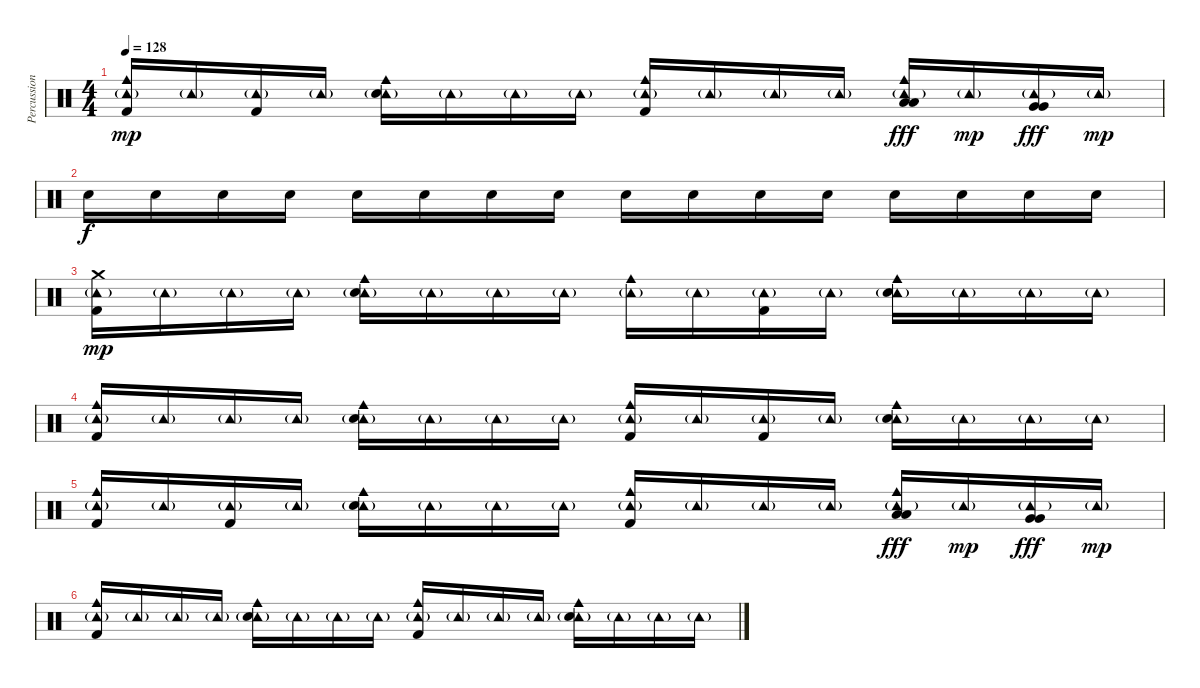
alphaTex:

\track ("Percussion" "Percussion") {instrument percussion}
\staff {score}
\articulation defaults
\ts (4 4)
\tempo 128
\clef neutral
\ks c
("Tambourine (hit)"{g} "Cowbell medium (hit)" "Kick (hit) 2").16{dy mp} "Tambourine (hit)"{g}.16 ("Tambourine (hit)"{g} "Kick (hit) 2").16 "Tambourine (hit)"{g}.16 ("Tambourine (hit)"{g} "Cowbell medium (hit)" "Snare (hit) 2").16 "Tambourine (hit)"{g}.16 "Tambourine (hit)"{g}.16 "Tambourine (hit)"{g}.16 ("Tambourine (hit)"{g} "Cowbell medium (hit)" "Kick (hit) 2").16 "Tambourine (hit)"{g}.16 "Tambourine (hit)"{g}.16 "Tambourine (hit)"{g}.16 ("Tambourine (hit)"{g} "Cowbell medium (hit)" "Low Tom (hit)" "Low Tom (hit)").16{dy fff} "Tambourine (hit)"{g}.16{dy mp} ("Tambourine (hit)"{g} "Very Low Tom (hit)" "Very Low Tom (hit)").16{dy fff} "Tambourine (hit)"{g}.16{dy mp} |
"Snare (hit) 2".16{dy f} "Snare (hit) 2".16 "Snare (hit) 2".16 "Snare (hit) 2".16 "Snare (hit) 2".16 "Snare (hit) 2".16 "Snare (hit) 2".16 "Snare (hit) 2".16 "Snare (hit) 2".16 "Snare (hit) 2".16 "Snare (hit) 2".16 "Snare (hit) 2".16 "Snare (hit) 2".16 "Snare (hit) 2".16 "Snare (hit) 2".16 "Snare (hit) 2".16 |
("Tambourine (hit)"{g} "Crash medium (hit)" "Kick (hit) 2").16{dy mp} "Tambourine (hit)"{g}.16 "Tambourine (hit)"{g}.16 "Tambourine (hit)"{g}.16 ("Tambourine (hit)"{g} "Cowbell medium (hit)" "Snare (hit) 2").16 "Tambourine (hit)"{g}.16 "Tambourine (hit)"{g}.16 "Tambourine (hit)"{g}.16 ("Tambourine (hit)"{g} "Cowbell medium (hit)").16 "Tambourine (hit)"{g}.16 ("Tambourine (hit)"{g} "Kick (hit) 2").16 "Tambourine (hit)"{g}.16 ("Tambourine (hit)"{g} "Cowbell medium (hit)" "Snare (hit) 2").16 "Tambourine (hit)"{g}.16 "Tambourine (hit)"{g}.16 "Tambourine (hit)"{g}.16 |
("Tambourine (hit)"{g} "Cowbell medium (hit)" "Kick (hit) 2").16 "Tambourine (hit)"{g}.16 "Tambourine (hit)"{g}.16 "Tambourine (hit)"{g}.16 ("Tambourine (hit)"{g} "Cowbell medium (hit)" "Snare (hit) 2").16 "Tambourine (hit)"{g}.16 "Tambourine (hit)"{g}.16 "Tambourine (hit)"{g}.16 ("Tambourine (hit)"{g} "Cowbell medium (hit)" "Kick (hit) 2").16 "Tambourine (hit)"{g}.16 ("Tambourine (hit)"{g} "Kick (hit) 2").16 "Tambourine (hit)"{g}.16 ("Tambourine (hit)"{g} "Cowbell medium (hit)" "Snare (hit) 2").16 "Tambourine (hit)"{g}.16 "Tambourine (hit)"{g}.16 "Tambourine (hit)"{g}.16 |
("Tambourine (hit)"{g} "Cowbell medium (hit)" "Kick (hit) 2").16 "Tambourine (hit)"{g}.16 ("Tambourine (hit)"{g} "Kick (hit) 2").16 "Tambourine (hit)"{g}.16 ("Tambourine (hit)"{g} "Cowbell medium (hit)" "Snare (hit) 2").16 "Tambourine (hit)"{g}.16 "Tambourine (hit)"{g}.16 "Tambourine (hit)"{g}.16 ("Tambourine (hit)"{g} "Cowbell medium (hit)" "Kick (hit) 2").16 "Tambourine (hit)"{g}.16 "Tambourine (hit)"{g}.16 "Tambourine (hit)"{g}.16 ("Tambourine (hit)"{g} "Cowbell medium (hit)" "Low Tom (hit)" "Low Tom (hit)").16{dy fff} "Tambourine (hit)"{g}.16{dy mp} ("Tambourine (hit)"{g} "Very Low Tom (hit)" "Very Low Tom (hit)").16{dy fff} "Tambourine (hit)"{g}.16{dy mp} |
("Tambourine (hit)"{g} "Cowbell medium (hit)" "Kick (hit) 2").16 "Tambourine (hit)"{g}.16 "Tambourine (hit)"{g}.16 "Tambourine (hit)"{g}.16 ("Tambourine (hit)"{g} "Cowbell medium (hit)" "Snare (hit) 2").16 "Tambourine (hit)"{g}.16 "Tambourine (hit)"{g}.16 "Tambourine (hit)"{g}.16 ("Tambourine (hit)"{g} "Cowbell medium (hit)" "Kick (hit) 2").16 "Tambourine (hit)"{g}.16 "Tambourine (hit)"{g}.16 "Tambourine (hit)"{g}.16 ("Tambourine (hit)"{g} "Cowbell medium (hit)" "Snare (hit) 2").16 "Tambourine (hit)"{g}.16 "Tambourine (hit)"{g}.16 "Tambourine (hit)"{g}.16
